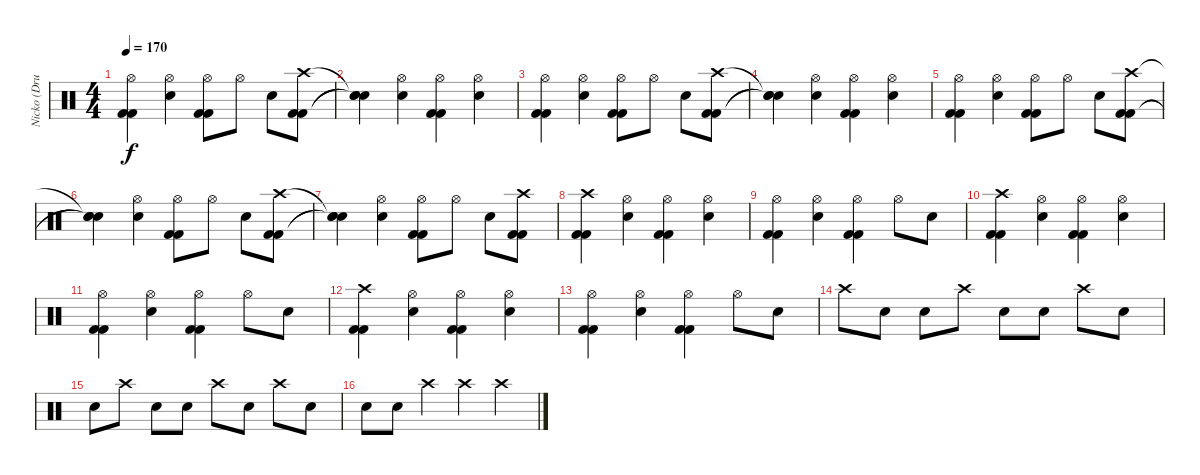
\track ("Nicko (Drums)" "Nicko (Dru") {instrument percussion}
\staff {score}
\articulation defaults
\ts (4 4)
\tempo 170
\clef neutral
\ks c
("Hi-Hat (open)" "Kick (hit) 2" "Kick (hit) 2").4{dy f} ("Hi-Hat (open)" "Snare (hit) 2").4 ("Hi-Hat (open)" "Kick (hit) 2" "Kick (hit) 2").8 "Hi-Hat (open)".8 "Snare (hit) 2".8 ("Crash high (hit)" "Kick (hit) 2" "Kick (hit) 2").8 |
("Snare (hit)"{t} "Snare (hit)"{t} "Snare (hit)"{t}).4 ("Hi-Hat (open)" "Snare (hit) 2").4 ("Hi-Hat (open)" "Kick (hit) 2" "Kick (hit) 2").4 ("Hi-Hat (open)" "Snare (hit) 2").4 |
("Hi-Hat (open)" "Kick (hit) 2" "Kick (hit) 2").4 ("Hi-Hat (open)" "Snare (hit) 2").4 ("Hi-Hat (open)" "Kick (hit) 2" "Kick (hit) 2").8 "Hi-Hat (open)".8 "Snare (hit) 2".8 ("Crash high (hit)" "Kick (hit) 2" "Kick (hit) 2").8 |
("Snare (hit)"{t} "Snare (hit)"{t} "Snare (hit)"{t}).4 ("Hi-Hat (open)" "Snare (hit) 2").4 ("Hi-Hat (open)" "Kick (hit) 2" "Kick (hit) 2").4 ("Hi-Hat (open)" "Snare (hit) 2").4 |
("Hi-Hat (open)" "Kick (hit) 2" "Kick (hit) 2").4 ("Hi-Hat (open)" "Snare (hit) 2").4 ("Hi-Hat (open)" "Kick (hit) 2" "Kick (hit) 2").8 "Hi-Hat (open)".8 "Snare (hit) 2".8 ("Crash high (hit)" "Kick (hit) 2" "Kick (hit) 2").8 |
("Snare (hit)"{t} "Snare (hit)"{t} "Snare (hit)"{t}).4 ("Hi-Hat (open)" "Snare (hit) 2").4 ("Hi-Hat (open)" "Kick (hit) 2" "Kick (hit) 2").8 "Hi-Hat (open)".8 "Snare (hit) 2".8 ("Crash high (hit)" "Kick (hit) 2" "Kick (hit) 2").8 |
("Snare (hit)"{t} "Snare (hit)"{t} "Snare (hit)"{t}).4 ("Hi-Hat (open)" "Snare (hit) 2").4 ("Hi-Hat (open)" "Kick (hit) 2" "Kick (hit) 2").8 "Hi-Hat (open)".8 "Snare (hit) 2".8 ("Crash high (hit)" "Kick (hit) 2" "Kick (hit) 2").8 |
("Crash high (hit)" "Kick (hit) 2" "Kick (hit) 2").4 ("Hi-Hat (open)" "Snare (hit) 2").4 ("Hi-Hat (open)" "Kick (hit) 2" "Kick (hit) 2").4 ("Hi-Hat (open)" "Snare (hit) 2").4 |
("Hi-Hat (open)" "Kick (hit) 2" "Kick (hit) 2").4 ("Hi-Hat (open)" "Snare (hit) 2").4 ("Hi-Hat (open)" "Kick (hit) 2" "Kick (hit) 2").4 "Hi-Hat (open)".8 "Snare (hit) 2".8 |
("Crash high (hit)" "Kick (hit) 2" "Kick (hit) 2").4 ("Hi-Hat (open)" "Snare (hit) 2").4 ("Hi-Hat (open)" "Kick (hit) 2" "Kick (hit) 2").4 ("Hi-Hat (open)" "Snare (hit) 2").4 |
("Hi-Hat (open)" "Kick (hit) 2" "Kick (hit) 2").4 ("Hi-Hat (open)" "Snare (hit) 2").4 ("Hi-Hat (open)" "Kick (hit) 2" "Kick (hit) 2").4 "Hi-Hat (open)".8 "Snare (hit) 2".8 |
("Crash high (hit)" "Kick (hit) 2" "Kick (hit) 2").4 ("Hi-Hat (open)" "Snare (hit) 2").4 ("Hi-Hat (open)" "Kick (hit) 2" "Kick (hit) 2").4 ("Hi-Hat (open)" "Snare (hit) 2").4 |
("Hi-Hat (open)" "Kick (hit) 2" "Kick (hit) 2").4 ("Hi-Hat (open)" "Snare (hit) 2").4 ("Hi-Hat (open)" "Kick (hit) 2" "Kick (hit) 2").4 "Hi-Hat (open)".8 "Snare (hit) 2".8 |
"Crash high (hit)".8 "Snare (hit) 2".8 "Snare (hit) 2".8 "Crash high (hit)".8 "Snare (hit) 2".8 "Snare (hit) 2".8 "Crash high (hit)".8 "Snare (hit) 2".8 |
"Snare (hit) 2".8 "Crash high (hit)".8 "Snare (hit) 2".8 "Snare (hit) 2".8 "Crash high (hit)".8 "Snare (hit) 2".8 "Crash high (hit)".8 "Snare (hit) 2".8 |
"Snare (hit) 2".8 "Snare (hit) 2".8 "Crash high (hit)".4 "Crash high (hit)".4 "Crash high (hit)".4
